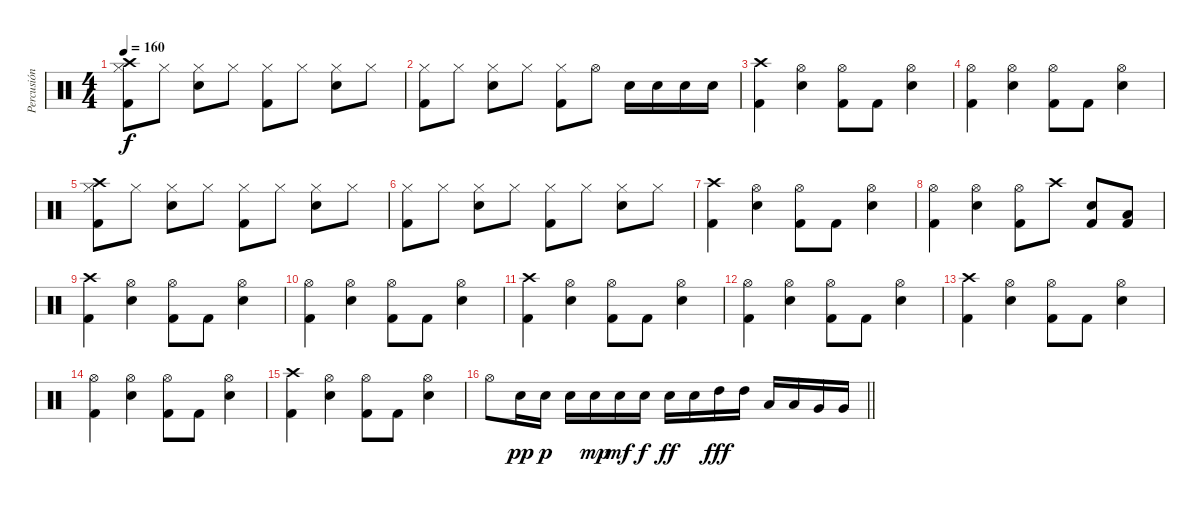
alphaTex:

\track ("Percusión" "Percusión") {instrument percussion}
\staff {score}
\articulation defaults
\ts (4 4)
\tempo 160
\clef neutral
\ks c
("Hi-Hat (closed)" "Kick (hit) 2" "Crash high (hit)").8{dy f} "Hi-Hat (closed)".8 ("Hi-Hat (closed)" "Electric Snare (hit)").8 "Hi-Hat (closed)".8 ("Hi-Hat (closed)" "Kick (hit) 2").8 "Hi-Hat (closed)".8 ("Hi-Hat (closed)" "Electric Snare (hit)").8 "Hi-Hat (closed)".8 |
("Hi-Hat (closed)" "Kick (hit) 2").8 "Hi-Hat (closed)".8 ("Hi-Hat (closed)" "Electric Snare (hit)").8 "Hi-Hat (closed)".8 ("Hi-Hat (closed)" "Kick (hit) 2").8 "Hi-Hat (open)".8 "Electric Snare (hit)".16 "Electric Snare (hit)".16 "Electric Snare (hit)".16 "Electric Snare (hit)".16 |
("Crash high (hit)" "Kick (hit) 2").4 ("Hi-Hat (open)" "Electric Snare (hit)").4 ("Hi-Hat (open)" "Kick (hit) 2").8 "Kick (hit) 2".8 ("Electric Snare (hit)" "Hi-Hat (open)").4 |
("Hi-Hat (open)" "Kick (hit) 2").4 ("Hi-Hat (open)" "Snare (hit) 2").4 ("Hi-Hat (open)" "Kick (hit) 2").8 "Kick (hit) 2".8 ("Hi-Hat (open)" "Electric Snare (hit)").4 |
("Hi-Hat (closed)" "Kick (hit) 2" "Crash high (hit)").8 "Hi-Hat (closed)".8 ("Hi-Hat (closed)" "Electric Snare (hit)").8 "Hi-Hat (closed)".8 ("Hi-Hat (closed)" "Kick (hit) 2").8 "Hi-Hat (closed)".8 ("Hi-Hat (closed)" "Electric Snare (hit)").8 "Hi-Hat (closed)".8 |
("Hi-Hat (closed)" "Kick (hit) 2").8 "Hi-Hat (closed)".8 ("Hi-Hat (closed)" "Electric Snare (hit)").8 "Hi-Hat (closed)".8 ("Hi-Hat (closed)" "Kick (hit) 2").8 "Hi-Hat (closed)".8 ("Hi-Hat (closed)" "Electric Snare (hit)").8 "Hi-Hat (closed)".8 |
("Crash high (hit)" "Kick (hit) 2").4 ("Hi-Hat (open)" "Electric Snare (hit)").4 ("Hi-Hat (open)" "Kick (hit) 2").8 "Kick (hit) 2".8 ("Electric Snare (hit)" "Hi-Hat (open)").4 |
("Hi-Hat (open)" "Kick (hit) 2").4 ("Hi-Hat (open)" "Snare (hit) 2").4 ("Hi-Hat (open)" "Kick (hit) 2").8 "Crash high (hit)".8 ("Kick (hit) 2" "Electric Snare (hit)").8 ("Kick (hit) 2" "Low Tom (hit)").8 |
("Crash high (hit)" "Kick (hit) 2").4 ("Hi-Hat (open)" "Electric Snare (hit)").4 ("Hi-Hat (open)" "Kick (hit) 2").8 "Kick (hit) 2".8 ("Electric Snare (hit)" "Hi-Hat (open)").4 |
("Hi-Hat (open)" "Kick (hit) 2").4 ("Hi-Hat (open)" "Snare (hit) 2").4 ("Hi-Hat (open)" "Kick (hit) 2").8 "Kick (hit) 2".8 ("Hi-Hat (open)" "Electric Snare (hit)").4 |
("Crash high (hit)" "Kick (hit) 2").4 ("Hi-Hat (open)" "Electric Snare (hit)").4 ("Hi-Hat (open)" "Kick (hit) 2").8 "Kick (hit) 2".8 ("Electric Snare (hit)" "Hi-Hat (open)").4 |
("Hi-Hat (open)" "Kick (hit) 2").4 ("Hi-Hat (open)" "Snare (hit) 2").4 ("Hi-Hat (open)" "Kick (hit) 2").8 "Kick (hit) 2".8 ("Hi-Hat (open)" "Electric Snare (hit)").4 |
("Crash high (hit)" "Kick (hit) 2").4 ("Hi-Hat (open)" "Electric Snare (hit)").4 ("Hi-Hat (open)" "Kick (hit) 2").8 "Kick (hit) 2".8 ("Electric Snare (hit)" "Hi-Hat (open)").4 |
("Hi-Hat (open)" "Kick (hit) 2").4 ("Hi-Hat (open)" "Snare (hit) 2").4 ("Hi-Hat (open)" "Kick (hit) 2").8 "Kick (hit) 2".8 ("Hi-Hat (open)" "Electric Snare (hit)").4 |
("Crash high (hit)" "Kick (hit) 2").4 ("Hi-Hat (open)" "Electric Snare (hit)").4 ("Hi-Hat (open)" "Kick (hit) 2").8 "Kick (hit) 2".8 ("Electric Snare (hit)" "Hi-Hat (open)").4 |
\barLineRight lightlight "Hi-Hat (open)".8 "Electric Snare (hit)".16{dy pp} "Electric Snare (hit)".16{dy p} "Electric Snare (hit)".16 "Electric Snare (hit)".16{dy mp} "Electric Snare (hit)".16{dy mf} "Electric Snare (hit)".16{dy f} "Electric Snare (hit)".16{dy ff} "Electric Snare (hit)".16 "High Tom (hit)".16{dy fff} "High Tom (hit)".16 "Low Tom (hit)".16 "Low Tom (hit)".16 "Very Low Tom (hit)".16 "Very Low Tom (hit)".16
